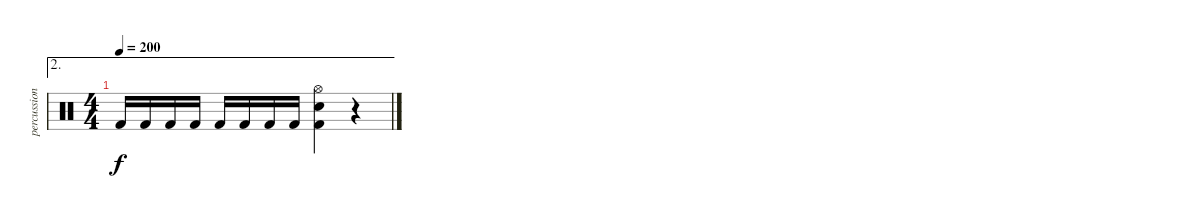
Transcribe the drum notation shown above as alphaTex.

\track ("percussion" "percussion") {instrument percussion}
\staff {score}
\articulation defaults
\ae 2
\ts (4 4)
\tempo 200
\clef neutral
\ks c "Kick (hit) 2".16{dy f} "Kick (hit) 2".16 "Kick (hit) 2".16 "Kick (hit) 2".16 "Kick (hit) 2".16 "Kick (hit) 2".16 "Kick (hit) 2".16 "Kick (hit) 2".16
("Kick (hit) 2" "Electric Snare (hit)" "Hi-Hat (open)").4 r.4
